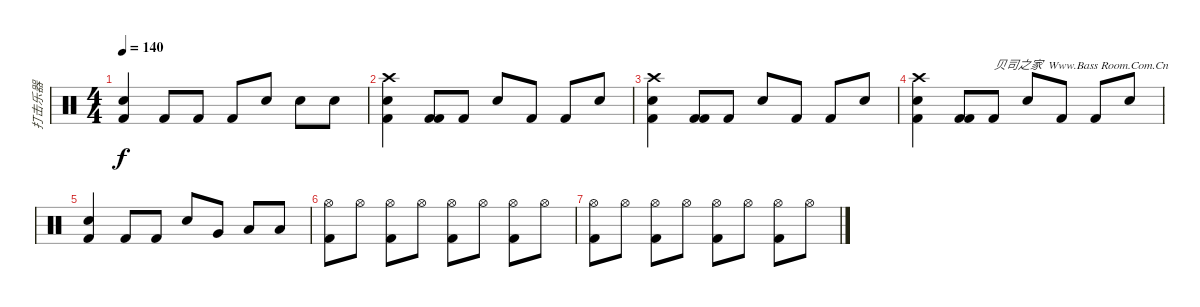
\track ("打击乐器" "打击乐器") {instrument percussion}
\staff {score}
\articulation defaults
\ts (4 4)
\tempo 140
\clef neutral
\ks c
("Kick (hit) 2" "Snare (hit) 2").4{dy f} "Kick (hit) 2".8 "Kick (hit) 2".8 "Kick (hit) 2".8 "Snare (hit) 2".8 "Snare (hit) 2".8 "Snare (hit) 2".8 |
("Crash high (hit)" "Snare (hit) 2" "Kick (hit) 2").4 ("Kick (hit) 2" "Kick (hit) 2").8 "Kick (hit) 2".8 "Snare (hit) 2".8 "Kick (hit) 2".8 "Kick (hit) 2".8 "Snare (hit) 2".8 |
("Crash high (hit)" "Snare (hit) 2" "Kick (hit) 2").4 ("Kick (hit) 2" "Kick (hit) 2").8 "Kick (hit) 2".8 "Snare (hit) 2".8 "Kick (hit) 2".8 "Kick (hit) 2".8 "Snare (hit) 2".8 |
("Crash high (hit)" "Snare (hit) 2" "Kick (hit) 2").4 ("Kick (hit) 2" "Kick (hit) 2").8 "Kick (hit) 2".8{txt "贝司之家  Www.Bass Room.Com.Cn"} "Snare (hit) 2".8 "Kick (hit) 2".8 "Kick (hit) 2".8 "Snare (hit) 2".8 |
("Kick (hit) 2" "Snare (hit) 2").4 "Kick (hit) 2".8 "Kick (hit) 2".8 "Snare (hit) 2".8 "Very Low Tom (hit)".8 "Low Tom (hit)".8 "Low Floor Tom (hit)".8 |
("Kick (hit) 2" "Hi-Hat (open)").8 "Hi-Hat (open)".8 ("Kick (hit) 2" "Hi-Hat (open)").8 "Hi-Hat (open)".8 ("Kick (hit) 2" "Hi-Hat (open)").8 "Hi-Hat (open)".8 ("Kick (hit) 2" "Hi-Hat (open)").8 "Hi-Hat (open)".8 |
("Kick (hit) 2" "Hi-Hat (open)").8 "Hi-Hat (open)".8 ("Kick (hit) 2" "Hi-Hat (open)").8 "Hi-Hat (open)".8 ("Kick (hit) 2" "Hi-Hat (open)").8 "Hi-Hat (open)".8 ("Kick (hit) 2" "Hi-Hat (open)").8 "Hi-Hat (open)".8
